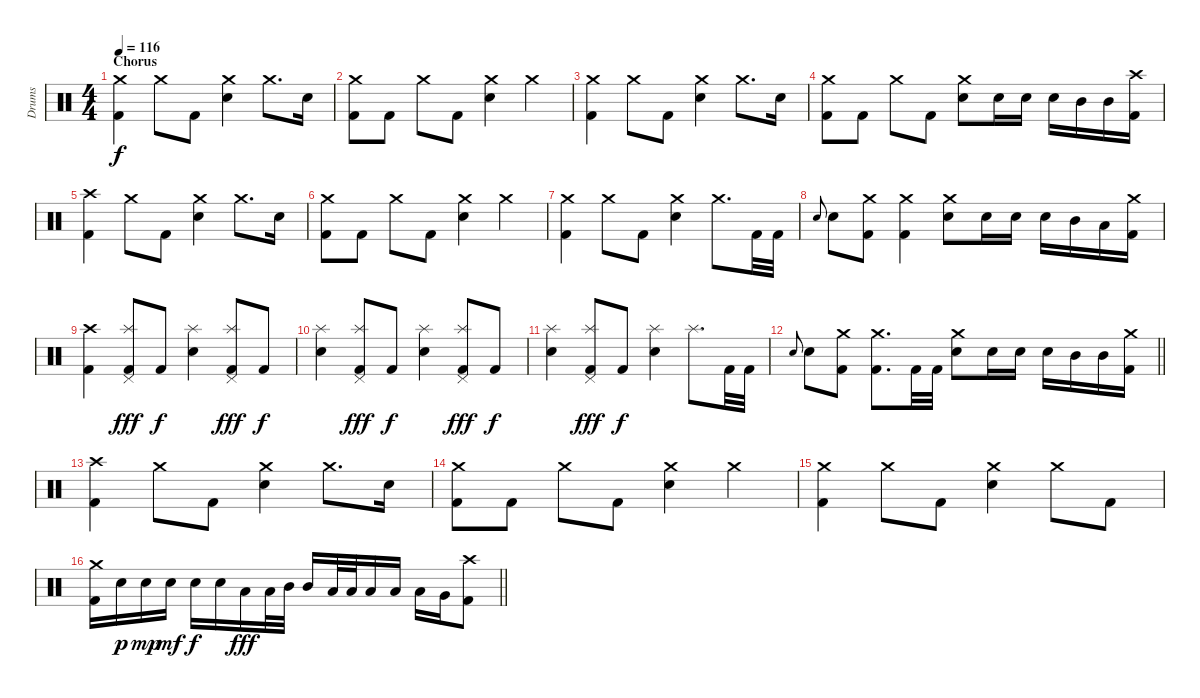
\track ("Drums" "Drums") {instrument percussion}
\staff {score}
\articulation defaults
\ts (4 4)
\section ("" "Chorus")
\tempo 116
\clef neutral
\ks c
("Crash medium (hit)" "Kick (hit) 2").4{dy f} "Crash medium (hit)".8 "Kick (hit) 2".8 ("Crash medium (hit)" "Electric Snare (hit)").4 "Crash medium (hit)".8{d} "Snare (hit) 2".16 |
("Crash medium (hit)" "Kick (hit) 2").8 "Kick (hit) 2".8 "Crash medium (hit)".8 "Kick (hit) 2".8 ("Crash medium (hit)" "Electric Snare (hit)").4 "Crash medium (hit)".4 |
("Crash medium (hit)" "Kick (hit) 2").4 "Crash medium (hit)".8 "Kick (hit) 2".8 ("Crash medium (hit)" "Electric Snare (hit)").4 "Crash medium (hit)".8{d} "Snare (hit) 2".16 |
("Crash medium (hit)" "Kick (hit) 2").8 "Kick (hit) 2".8 "Crash medium (hit)".8 "Kick (hit) 2".8 ("Crash medium (hit)" "Electric Snare (hit)").8 "Electric Snare (hit)".16 "Electric Snare (hit)".16 "Electric Snare (hit)".16 "Mid Tom (hit)".16 "Mid Tom (hit)".16 ("Crash high (hit)" "Kick (hit) 2").16 |
("Crash high (hit)" "Kick (hit) 2").4 "Crash medium (hit)".8 "Kick (hit) 2".8 ("Crash medium (hit)" "Electric Snare (hit)").4 "Crash medium (hit)".8{d} "Snare (hit) 2".16 |
("Crash medium (hit)" "Kick (hit) 2").8 "Kick (hit) 2".8 "Crash medium (hit)".8 "Kick (hit) 2".8 ("Crash medium (hit)" "Electric Snare (hit)").4 "Crash medium (hit)".4 |
("Crash medium (hit)" "Kick (hit) 2").4 "Crash medium (hit)".8 "Kick (hit) 2".8 ("Crash medium (hit)" "Electric Snare (hit)").4 "Crash medium (hit)".8{d} "Kick (hit) 2".32 "Kick (hit) 2".32 |
"Electric Snare (hit)".8{gr onbeat} "Electric Snare (hit)".8 ("Crash medium (hit)" "Kick (hit) 2").8 ("Crash medium (hit)" "Kick (hit) 2").4 ("Crash medium (hit)" "Electric Snare (hit)").8 "Electric Snare (hit)".16 "Electric Snare (hit)".16 "Electric Snare (hit)".16 "Mid Tom (hit)".16 "Low Tom (hit)".16 ("Crash medium (hit)" "Kick (hit) 2").16 |
("Crash high (hit)" "Kick (hit) 2").4 ("Splash (hit)" "Pedal Hi-Hat (hit)" "Kick (hit) 2").8{dy fff} "Kick (hit) 2".8{dy f} ("Splash (hit)" "Electric Snare (hit)").4 ("Splash (hit)" "Pedal Hi-Hat (hit)" "Kick (hit) 2").8{dy fff} "Kick (hit) 2".8{dy f} |
("Splash (hit)" "Electric Snare (hit)").4 ("Splash (hit)" "Pedal Hi-Hat (hit)" "Kick (hit) 2").8{dy fff} "Kick (hit) 2".8{dy f} ("Splash (hit)" "Electric Snare (hit)").4 ("Splash (hit)" "Pedal Hi-Hat (hit)" "Kick (hit) 2").8{dy fff} "Kick (hit) 2".8{dy f} |
("Splash (hit)" "Electric Snare (hit)").4 ("Splash (hit)" "Pedal Hi-Hat (hit)" "Kick (hit) 2").8{dy fff} "Kick (hit) 2".8{dy f} ("Splash (hit)" "Electric Snare (hit)").4 "Splash (hit)".8{d} "Kick (hit) 2".32 "Kick (hit) 2".32 |
\barLineRight lightlight "Electric Snare (hit)".8{gr onbeat} "Electric Snare (hit)".8
("Crash medium (hit)" "Kick (hit) 2").8 ("Crash medium (hit)" "Kick (hit) 2").8{d} "Kick (hit) 2".32 "Kick (hit) 2".32 ("Crash medium (hit)" "Electric Snare (hit)").8 "Electric Snare (hit)".16 "Electric Snare (hit)".16 "Electric Snare (hit)".16 "Mid Tom (hit)".16 "Mid Tom (hit)".16 ("Crash medium (hit)" "Kick (hit) 2").16 |
("Crash high (hit)" "Kick (hit) 2").4 "Crash medium (hit)".8 "Kick (hit) 2".8 ("Crash medium (hit)" "Electric Snare (hit)").4 "Crash medium (hit)".8{d} "Electric Snare (hit)".16 |
("Crash medium (hit)" "Kick (hit) 2").8 "Kick (hit) 2".8 "Crash medium (hit)".8 "Kick (hit) 2".8 ("Crash medium (hit)" "Electric Snare (hit)").4 "Crash medium (hit)".4 |
("Crash medium (hit)" "Kick (hit) 2").4 "Crash medium (hit)".8 "Kick (hit) 2".8 ("Crash medium (hit)" "Electric Snare (hit)").4 "Crash medium (hit)".8 "Kick (hit) 2".8 |
\barLineRight lightlight
("Crash medium (hit)" "Kick (hit) 2").16 "Electric Snare (hit)".16{dy p} "Electric Snare (hit)".16{dy mp} "Electric Snare (hit)".16{dy mf} "Electric Snare (hit)".16{dy f} "Electric Snare (hit)".16 "Low Floor Tom (hit)".16{dy fff} "Low Floor Tom (hit)".32 "Mid Tom (hit)".32 "Mid Tom (hit)".16 "Low Tom (hit)".32 "Low Tom (hit)".32 "Low Tom (hit)".16 "Low Tom (hit)".16 "Low Tom (hit)".16 "Very Low Tom (hit)".16 ("Crash high (hit)" "Kick (hit) 2").8
